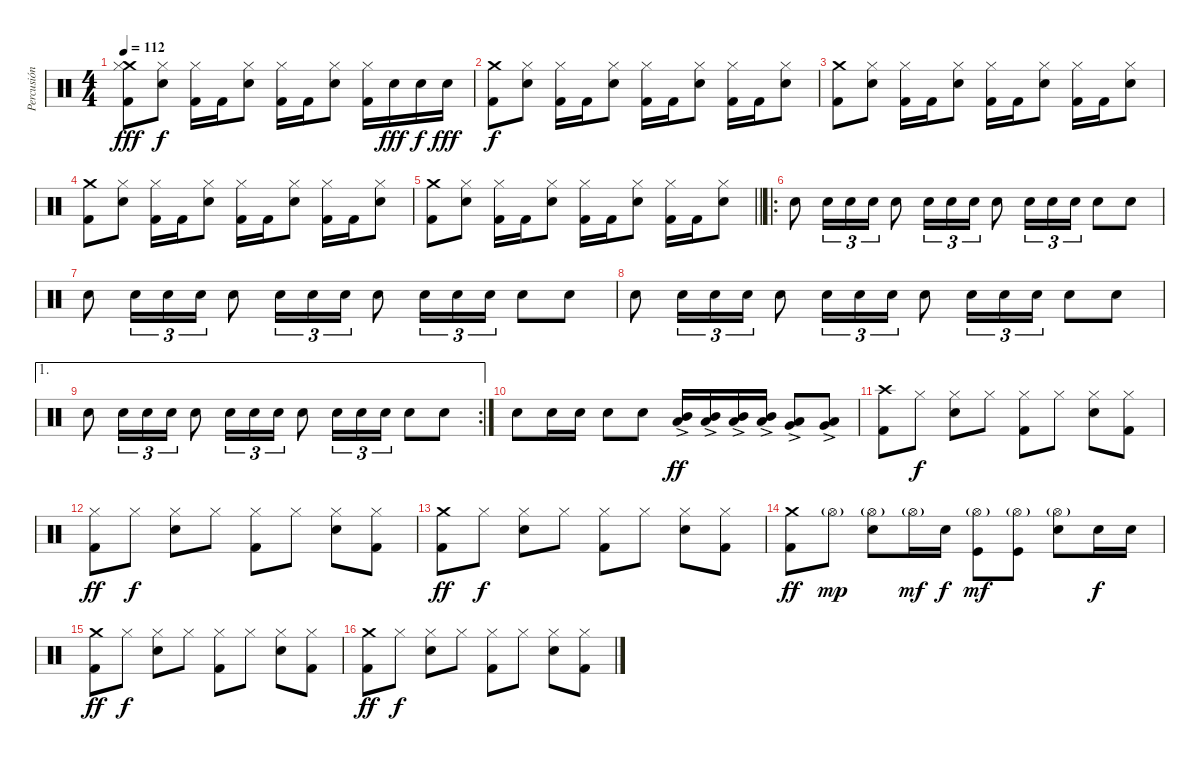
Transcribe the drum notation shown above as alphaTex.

\track ("Percusión" "Percusión") {instrument percussion}
\staff {score}
\articulation defaults
\ts (4 4)
\tempo 112
\clef neutral
\ks c
("Crash medium (hit)" "Hi-Hat (closed)" "Kick (hit) 2").8{dy fff} ("Hi-Hat (closed)" "Electric Snare (hit)").8{dy f} ("Hi-Hat (closed)" "Kick (hit) 2").16 "Kick (hit) 2".16 ("Hi-Hat (closed)" "Electric Snare (hit)").8 ("Hi-Hat (closed)" "Kick (hit) 2").16 "Kick (hit) 2".16 ("Hi-Hat (closed)" "Electric Snare (hit)").8 ("Hi-Hat (closed)" "Kick (hit) 2").16 "Electric Snare (hit)".16{dy fff} "Electric Snare (hit)".16{dy f} "Electric Snare (hit)".16{dy fff} |
("Crash medium (hit)" "Kick (hit) 2").8{dy f} ("Hi-Hat (closed)" "Electric Snare (hit)").8 ("Hi-Hat (closed)" "Kick (hit) 2").16 "Kick (hit) 2".16 ("Hi-Hat (closed)" "Electric Snare (hit)").8 ("Hi-Hat (closed)" "Kick (hit) 2").16 "Kick (hit) 2".16 ("Hi-Hat (closed)" "Electric Snare (hit)").8 ("Hi-Hat (closed)" "Kick (hit) 2").16 "Kick (hit) 2".16 ("Hi-Hat (closed)" "Electric Snare (hit)").8 |
("Crash medium (hit)" "Kick (hit) 2").8 ("Hi-Hat (closed)" "Electric Snare (hit)").8 ("Hi-Hat (closed)" "Kick (hit) 2").16 "Kick (hit) 2".16 ("Hi-Hat (closed)" "Electric Snare (hit)").8 ("Hi-Hat (closed)" "Kick (hit) 2").16 "Kick (hit) 2".16 ("Hi-Hat (closed)" "Electric Snare (hit)").8 ("Hi-Hat (closed)" "Kick (hit) 2").16 "Kick (hit) 2".16 ("Hi-Hat (closed)" "Electric Snare (hit)").8 |
("Crash medium (hit)" "Kick (hit) 2").8 ("Hi-Hat (closed)" "Electric Snare (hit)").8 ("Hi-Hat (closed)" "Kick (hit) 2").16 "Kick (hit) 2".16 ("Hi-Hat (closed)" "Electric Snare (hit)").8 ("Hi-Hat (closed)" "Kick (hit) 2").16 "Kick (hit) 2".16 ("Hi-Hat (closed)" "Electric Snare (hit)").8 ("Hi-Hat (closed)" "Kick (hit) 2").16 "Kick (hit) 2".16 ("Hi-Hat (closed)" "Electric Snare (hit)").8 |
\barLineRight lightlight
("Crash medium (hit)" "Kick (hit) 2").8 ("Hi-Hat (closed)" "Electric Snare (hit)").8 ("Hi-Hat (closed)" "Kick (hit) 2").16 "Kick (hit) 2".16 ("Hi-Hat (closed)" "Electric Snare (hit)").8 ("Hi-Hat (closed)" "Kick (hit) 2").16 "Kick (hit) 2".16 ("Hi-Hat (closed)" "Electric Snare (hit)").8 ("Hi-Hat (closed)" "Kick (hit) 2").16 "Kick (hit) 2".16 ("Hi-Hat (closed)" "Electric Snare (hit)").8 |
\ro
\section ("" "")
"Electric Snare (hit)".8 "Electric Snare (hit)".16{tu (3 2)} "Electric Snare (hit)".16{tu (3 2)} "Electric Snare (hit)".16{tu (3 2)} "Electric Snare (hit)".8 "Electric Snare (hit)".16{tu (3 2)} "Electric Snare (hit)".16{tu (3 2)} "Electric Snare (hit)".16{tu (3 2)} "Electric Snare (hit)".8 "Electric Snare (hit)".16{tu (3 2)} "Electric Snare (hit)".16{tu (3 2)} "Electric Snare (hit)".16{tu (3 2)} "Electric Snare (hit)".8 "Electric Snare (hit)".8 |
"Electric Snare (hit)".8 "Electric Snare (hit)".16{tu (3 2)} "Electric Snare (hit)".16{tu (3 2)} "Electric Snare (hit)".16{tu (3 2)} "Electric Snare (hit)".8 "Electric Snare (hit)".16{tu (3 2)} "Electric Snare (hit)".16{tu (3 2)} "Electric Snare (hit)".16{tu (3 2)} "Electric Snare (hit)".8 "Electric Snare (hit)".16{tu (3 2)} "Electric Snare (hit)".16{tu (3 2)} "Electric Snare (hit)".16{tu (3 2)} "Electric Snare (hit)".8 "Electric Snare (hit)".8 |
"Electric Snare (hit)".8 "Electric Snare (hit)".16{tu (3 2)} "Electric Snare (hit)".16{tu (3 2)} "Electric Snare (hit)".16{tu (3 2)} "Electric Snare (hit)".8 "Electric Snare (hit)".16{tu (3 2)} "Electric Snare (hit)".16{tu (3 2)} "Electric Snare (hit)".16{tu (3 2)} "Electric Snare (hit)".8 "Electric Snare (hit)".16{tu (3 2)} "Electric Snare (hit)".16{tu (3 2)} "Electric Snare (hit)".16{tu (3 2)} "Electric Snare (hit)".8 "Electric Snare (hit)".8 |
\ae 1
\rc 2 "Electric Snare (hit)".8 "Electric Snare (hit)".16{tu (3 2)} "Electric Snare (hit)".16{tu (3 2)} "Electric Snare (hit)".16{tu (3 2)} "Electric Snare (hit)".8 "Electric Snare (hit)".16{tu (3 2)} "Electric Snare (hit)".16{tu (3 2)} "Electric Snare (hit)".16{tu (3 2)} "Electric Snare (hit)".8 "Electric Snare (hit)".16{tu (3 2)} "Electric Snare (hit)".16{tu (3 2)} "Electric Snare (hit)".16{tu (3 2)} "Electric Snare (hit)".8 "Electric Snare (hit)".8
|
"Electric Snare (hit)".8 "Electric Snare (hit)".16 "Electric Snare (hit)".16 "Electric Snare (hit)".8 "Electric Snare (hit)".8 ("Mid Tom (hit)"{ac} "Low Tom (hit)"{ac}).16{dy ff} ("Mid Tom (hit)"{ac} "Low Tom (hit)"{ac}).16 ("Mid Tom (hit)"{ac} "Low Tom (hit)"{ac}).16 ("Mid Tom (hit)"{ac} "Low Tom (hit)"{ac}).16 ("Low Tom (hit)"{ac} "Very Low Tom (hit)"{ac}).8 ("Low Tom (hit)"{ac} "Very Low Tom (hit)"{ac}).8 |
("Crash high (hit)" "Kick (hit) 2").8 "Hi-Hat (closed)".8{dy f} ("Hi-Hat (closed)" "Electric Snare (hit)").8 "Hi-Hat (closed)".8 ("Hi-Hat (closed)" "Kick (hit) 2").8 "Hi-Hat (closed)".8 ("Hi-Hat (closed)" "Electric Snare (hit)").8 ("Hi-Hat (closed)" "Kick (hit) 2").8 |
("Hi-Hat (closed)" "Kick (hit) 2").8{dy ff} "Hi-Hat (closed)".8{dy f} ("Hi-Hat (closed)" "Electric Snare (hit)").8 "Hi-Hat (closed)".8 ("Hi-Hat (closed)" "Kick (hit) 2").8 "Hi-Hat (closed)".8 ("Hi-Hat (closed)" "Electric Snare (hit)").8 ("Hi-Hat (closed)" "Kick (hit) 2").8 |
("Crash medium (hit)" "Kick (hit) 2").8{dy ff} "Hi-Hat (closed)".8{dy f} ("Hi-Hat (closed)" "Electric Snare (hit)").8 "Hi-Hat (closed)".8 ("Hi-Hat (closed)" "Kick (hit) 2").8 "Hi-Hat (closed)".8 ("Hi-Hat (closed)" "Electric Snare (hit)").8 ("Hi-Hat (closed)" "Kick (hit) 2").8 |
("Crash medium (hit)" "Kick (hit) 2").8{dy ff} "Hi-Hat (open)"{g}.8{dy mp} ("Hi-Hat (open)"{g} "Electric Snare (hit)").8 "Hi-Hat (open)"{g}.16{dy mf} "Electric Snare (hit)".16{dy f} ("Hi-Hat (open)"{g} "Kick (hit)").8{dy mf} ("Hi-Hat (open)"{g} "Kick (hit)").8 ("Hi-Hat (open)"{g} "Electric Snare (hit)").8 "Electric Snare (hit)".16{dy f} "Electric Snare (hit)".16 |
("Crash medium (hit)" "Kick (hit) 2").8{dy ff} "Hi-Hat (closed)".8{dy f} ("Hi-Hat (closed)" "Electric Snare (hit)").8 "Hi-Hat (closed)".8 ("Hi-Hat (closed)" "Kick (hit) 2").8 "Hi-Hat (closed)".8 ("Hi-Hat (closed)" "Electric Snare (hit)").8 ("Hi-Hat (closed)" "Kick (hit) 2").8 |
("Crash medium (hit)" "Kick (hit) 2").8{dy ff} "Hi-Hat (closed)".8{dy f} ("Hi-Hat (closed)" "Electric Snare (hit)").8 "Hi-Hat (closed)".8 ("Hi-Hat (closed)" "Kick (hit) 2").8 "Hi-Hat (closed)".8 ("Hi-Hat (closed)" "Electric Snare (hit)").8 ("Hi-Hat (closed)" "Kick (hit) 2").8
